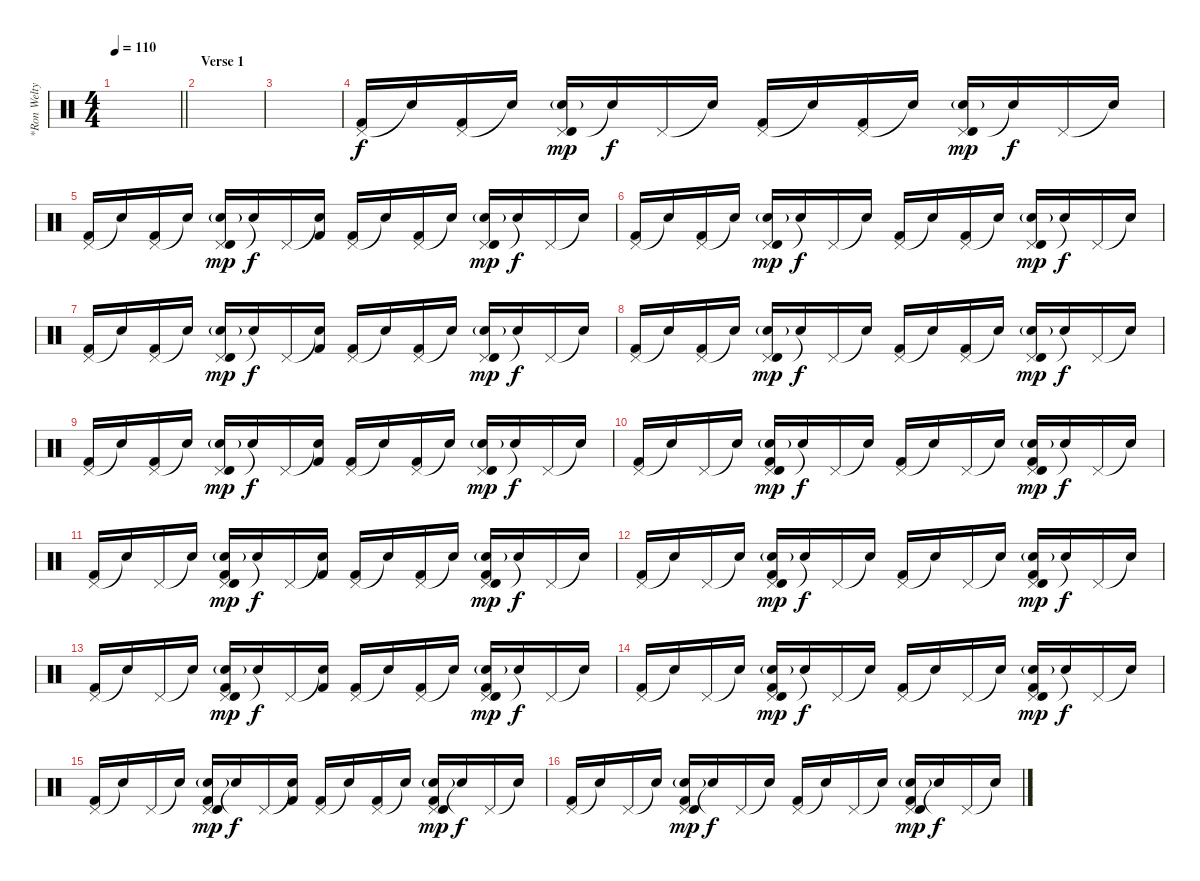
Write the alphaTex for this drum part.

\track ("*Ron Welty (Ex-drummer)" "*Ron Welty") {instrument percussion}
\staff {score}
\articulation defaults
\ts (4 4)
\tempo 110
\clef neutral
\barLineRight lightlight
\ks c
|
\section ("" "Verse 1")
|
|
("Pedal Hi-Hat (hit)" "Kick (hit) 2").16 "Snare (hit)"{t}.16 ("Pedal Hi-Hat (hit)" "Kick (hit) 2").16 "Snare (hit)"{t}.16 ("Pedal Hi-Hat (hit)" "Snare (hit) 2"{g} "Timbale high (hit)").16{dy mp} "Snare (hit)"{t}.16{dy f} "Pedal Hi-Hat (hit)".16 "Snare (hit)"{t}.16 ("Pedal Hi-Hat (hit)" "Kick (hit) 2").16 "Snare (hit)"{t}.16 ("Pedal Hi-Hat (hit)" "Kick (hit) 2").16 "Snare (hit)"{t}.16 ("Pedal Hi-Hat (hit)" "Snare (hit) 2"{g} "Timbale high (hit)").16{dy mp} "Snare (hit)"{t}.16{dy f} "Pedal Hi-Hat (hit)".16 "Snare (hit)"{t}.16 |
("Pedal Hi-Hat (hit)" "Kick (hit) 2").16 "Snare (hit)"{t}.16 ("Pedal Hi-Hat (hit)" "Kick (hit) 2").16 "Snare (hit)"{t}.16 ("Pedal Hi-Hat (hit)" "Snare (hit) 2"{g} "Timbale high (hit)").16{dy mp} "Snare (hit)"{t}.16{dy f} "Pedal Hi-Hat (hit)".16 ("Snare (hit)"{t} "Kick (hit) 2").16 ("Pedal Hi-Hat (hit)" "Kick (hit) 2").16 "Snare (hit)"{t}.16 ("Pedal Hi-Hat (hit)" "Kick (hit) 2").16 "Snare (hit)"{t}.16 ("Pedal Hi-Hat (hit)" "Snare (hit) 2"{g} "Timbale high (hit)").16{dy mp} "Snare (hit)"{t}.16{dy f} "Pedal Hi-Hat (hit)".16 "Snare (hit)"{t}.16 |
("Pedal Hi-Hat (hit)" "Kick (hit) 2").16 "Snare (hit)"{t}.16 ("Pedal Hi-Hat (hit)" "Kick (hit) 2").16 "Snare (hit)"{t}.16 ("Pedal Hi-Hat (hit)" "Snare (hit) 2"{g} "Timbale high (hit)").16{dy mp} "Snare (hit)"{t}.16{dy f} "Pedal Hi-Hat (hit)".16 "Snare (hit)"{t}.16 ("Pedal Hi-Hat (hit)" "Kick (hit) 2").16 "Snare (hit)"{t}.16 ("Pedal Hi-Hat (hit)" "Kick (hit) 2").16 "Snare (hit)"{t}.16 ("Pedal Hi-Hat (hit)" "Snare (hit) 2"{g} "Timbale high (hit)").16{dy mp} "Snare (hit)"{t}.16{dy f} "Pedal Hi-Hat (hit)".16 "Snare (hit)"{t}.16 |
("Pedal Hi-Hat (hit)" "Kick (hit) 2").16 "Snare (hit)"{t}.16 ("Pedal Hi-Hat (hit)" "Kick (hit) 2").16 "Snare (hit)"{t}.16 ("Pedal Hi-Hat (hit)" "Snare (hit) 2"{g} "Timbale high (hit)").16{dy mp} "Snare (hit)"{t}.16{dy f} "Pedal Hi-Hat (hit)".16 ("Snare (hit)"{t} "Kick (hit) 2").16 ("Pedal Hi-Hat (hit)" "Kick (hit) 2").16 "Snare (hit)"{t}.16 ("Pedal Hi-Hat (hit)" "Kick (hit) 2").16 "Snare (hit)"{t}.16 ("Pedal Hi-Hat (hit)" "Snare (hit) 2"{g} "Timbale high (hit)").16{dy mp} "Snare (hit)"{t}.16{dy f} "Pedal Hi-Hat (hit)".16 "Snare (hit)"{t}.16 |
("Pedal Hi-Hat (hit)" "Kick (hit) 2").16 "Snare (hit)"{t}.16 ("Pedal Hi-Hat (hit)" "Kick (hit) 2").16 "Snare (hit)"{t}.16 ("Pedal Hi-Hat (hit)" "Snare (hit) 2"{g} "Timbale high (hit)").16{dy mp} "Snare (hit)"{t}.16{dy f} "Pedal Hi-Hat (hit)".16 "Snare (hit)"{t}.16 ("Pedal Hi-Hat (hit)" "Kick (hit) 2").16 "Snare (hit)"{t}.16 ("Pedal Hi-Hat (hit)" "Kick (hit) 2").16 "Snare (hit)"{t}.16 ("Pedal Hi-Hat (hit)" "Snare (hit) 2"{g} "Timbale high (hit)").16{dy mp} "Snare (hit)"{t}.16{dy f} "Pedal Hi-Hat (hit)".16 "Snare (hit)"{t}.16 |
("Pedal Hi-Hat (hit)" "Kick (hit) 2").16 "Snare (hit)"{t}.16 ("Pedal Hi-Hat (hit)" "Kick (hit) 2").16 "Snare (hit)"{t}.16 ("Pedal Hi-Hat (hit)" "Snare (hit) 2"{g} "Timbale high (hit)").16{dy mp} "Snare (hit)"{t}.16{dy f} "Pedal Hi-Hat (hit)".16 ("Snare (hit)"{t} "Kick (hit) 2").16 ("Pedal Hi-Hat (hit)" "Kick (hit) 2").16 "Snare (hit)"{t}.16 ("Pedal Hi-Hat (hit)" "Kick (hit) 2").16 "Snare (hit)"{t}.16 ("Pedal Hi-Hat (hit)" "Snare (hit) 2"{g} "Timbale high (hit)").16{dy mp} "Snare (hit)"{t}.16{dy f} "Pedal Hi-Hat (hit)".16 "Snare (hit)"{t}.16 |
("Pedal Hi-Hat (hit)" "Kick (hit) 2").16 "Snare (hit)"{t}.16 "Pedal Hi-Hat (hit)".16 "Snare (hit)"{t}.16 ("Pedal Hi-Hat (hit)" "Snare (hit) 2"{g} "Timbale high (hit)" "Kick (hit) 2").16{dy mp} "Snare (hit)"{t}.16{dy f} "Pedal Hi-Hat (hit)".16 "Snare (hit)"{t}.16 ("Pedal Hi-Hat (hit)" "Kick (hit) 2").16 "Snare (hit)"{t}.16 "Pedal Hi-Hat (hit)".16 "Snare (hit)"{t}.16 ("Pedal Hi-Hat (hit)" "Snare (hit) 2"{g} "Timbale high (hit)" "Kick (hit) 2").16{dy mp} "Snare (hit)"{t}.16{dy f} "Pedal Hi-Hat (hit)".16 "Snare (hit)"{t}.16 |
("Pedal Hi-Hat (hit)" "Kick (hit) 2").16 "Snare (hit)"{t}.16 "Pedal Hi-Hat (hit)".16 "Snare (hit)"{t}.16 ("Pedal Hi-Hat (hit)" "Snare (hit) 2"{g} "Timbale high (hit)" "Kick (hit) 2").16{dy mp} "Snare (hit)"{t}.16{dy f} "Pedal Hi-Hat (hit)".16 ("Snare (hit)"{t} "Kick (hit) 2").16 ("Pedal Hi-Hat (hit)" "Kick (hit) 2").16 "Snare (hit)"{t}.16 ("Pedal Hi-Hat (hit)" "Kick (hit) 2").16 "Snare (hit)"{t}.16 ("Pedal Hi-Hat (hit)" "Snare (hit) 2"{g} "Timbale high (hit)" "Kick (hit) 2").16{dy mp} "Snare (hit)"{t}.16{dy f} "Pedal Hi-Hat (hit)".16 "Snare (hit)"{t}.16 |
("Pedal Hi-Hat (hit)" "Kick (hit) 2").16 "Snare (hit)"{t}.16 "Pedal Hi-Hat (hit)".16 "Snare (hit)"{t}.16 ("Pedal Hi-Hat (hit)" "Snare (hit) 2"{g} "Timbale high (hit)" "Kick (hit) 2").16{dy mp} "Snare (hit)"{t}.16{dy f} "Pedal Hi-Hat (hit)".16 "Snare (hit)"{t}.16 ("Pedal Hi-Hat (hit)" "Kick (hit) 2").16 "Snare (hit)"{t}.16 "Pedal Hi-Hat (hit)".16 "Snare (hit)"{t}.16 ("Pedal Hi-Hat (hit)" "Snare (hit) 2"{g} "Timbale high (hit)" "Kick (hit) 2").16{dy mp} "Snare (hit)"{t}.16{dy f} "Pedal Hi-Hat (hit)".16 "Snare (hit)"{t}.16 |
("Pedal Hi-Hat (hit)" "Kick (hit) 2").16 "Snare (hit)"{t}.16 "Pedal Hi-Hat (hit)".16 "Snare (hit)"{t}.16 ("Pedal Hi-Hat (hit)" "Snare (hit) 2"{g} "Timbale high (hit)" "Kick (hit) 2").16{dy mp} "Snare (hit)"{t}.16{dy f} "Pedal Hi-Hat (hit)".16 ("Snare (hit)"{t} "Kick (hit) 2").16 ("Pedal Hi-Hat (hit)" "Kick (hit) 2").16 "Snare (hit)"{t}.16 ("Pedal Hi-Hat (hit)" "Kick (hit) 2").16 "Snare (hit)"{t}.16 ("Pedal Hi-Hat (hit)" "Snare (hit) 2"{g} "Timbale high (hit)" "Kick (hit) 2").16{dy mp} "Snare (hit)"{t}.16{dy f} "Pedal Hi-Hat (hit)".16 "Snare (hit)"{t}.16 |
("Pedal Hi-Hat (hit)" "Kick (hit) 2").16 "Snare (hit)"{t}.16 "Pedal Hi-Hat (hit)".16 "Snare (hit)"{t}.16 ("Pedal Hi-Hat (hit)" "Snare (hit) 2"{g} "Timbale high (hit)" "Kick (hit) 2").16{dy mp} "Snare (hit)"{t}.16{dy f} "Pedal Hi-Hat (hit)".16 "Snare (hit)"{t}.16 ("Pedal Hi-Hat (hit)" "Kick (hit) 2").16 "Snare (hit)"{t}.16 "Pedal Hi-Hat (hit)".16 "Snare (hit)"{t}.16 ("Pedal Hi-Hat (hit)" "Snare (hit) 2"{g} "Timbale high (hit)" "Kick (hit) 2").16{dy mp} "Snare (hit)"{t}.16{dy f} "Pedal Hi-Hat (hit)".16 "Snare (hit)"{t}.16 |
("Pedal Hi-Hat (hit)" "Kick (hit) 2").16 "Snare (hit)"{t}.16 "Pedal Hi-Hat (hit)".16 "Snare (hit)"{t}.16 ("Pedal Hi-Hat (hit)" "Snare (hit) 2"{g} "Timbale high (hit)" "Kick (hit) 2").16{dy mp} "Snare (hit)"{t}.16{dy f} "Pedal Hi-Hat (hit)".16 ("Snare (hit)"{t} "Kick (hit) 2").16 ("Pedal Hi-Hat (hit)" "Kick (hit) 2").16 "Snare (hit)"{t}.16 ("Pedal Hi-Hat (hit)" "Kick (hit) 2").16 "Snare (hit)"{t}.16 ("Pedal Hi-Hat (hit)" "Snare (hit) 2"{g} "Timbale high (hit)" "Kick (hit) 2").16{dy mp} "Snare (hit)"{t}.16{dy f} "Pedal Hi-Hat (hit)".16 "Snare (hit)"{t}.16 |
("Pedal Hi-Hat (hit)" "Kick (hit) 2").16 "Snare (hit)"{t}.16 "Pedal Hi-Hat (hit)".16 "Snare (hit)"{t}.16 ("Pedal Hi-Hat (hit)" "Snare (hit) 2"{g} "Timbale high (hit)" "Kick (hit) 2").16{dy mp} "Snare (hit)"{t}.16{dy f} "Pedal Hi-Hat (hit)".16 "Snare (hit)"{t}.16 ("Pedal Hi-Hat (hit)" "Kick (hit) 2").16 "Snare (hit)"{t}.16 "Pedal Hi-Hat (hit)".16 "Snare (hit)"{t}.16 ("Pedal Hi-Hat (hit)" "Snare (hit) 2"{g} "Timbale high (hit)" "Kick (hit) 2").16{dy mp} "Snare (hit)"{t}.16{dy f} "Pedal Hi-Hat (hit)".16 "Snare (hit)"{t}.16
